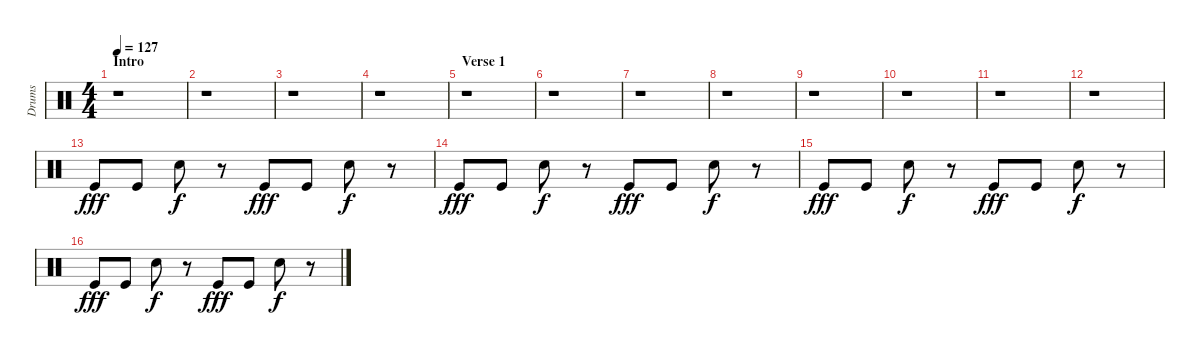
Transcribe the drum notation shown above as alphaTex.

\track ("Drums" "Drums") {instrument percussion}
\staff {score}
\articulation defaults
\ts (4 4)
\section ("" "Intro")
\tempo 127
\clef neutral
\ks c
r.1{dy fff} |
r.1 |
r.1 |
r.1 |
\section ("" "Verse 1")
r.1 |
r.1 |
r.1 |
r.1 |
r.1 |
r.1 |
r.1 |
r.1 |
"Kick (hit)".8 "Kick (hit)".8 "Electric Snare (hit)".8{dy f} r.8 "Kick (hit)".8{dy fff} "Kick (hit)".8 "Electric Snare (hit)".8{dy f} r.8 |
"Kick (hit)".8{dy fff} "Kick (hit)".8 "Electric Snare (hit)".8{dy f} r.8 "Kick (hit)".8{dy fff} "Kick (hit)".8 "Electric Snare (hit)".8{dy f} r.8 |
"Kick (hit)".8{dy fff} "Kick (hit)".8 "Electric Snare (hit)".8{dy f} r.8 "Kick (hit)".8{dy fff} "Kick (hit)".8 "Electric Snare (hit)".8{dy f} r.8 |
"Kick (hit)".8{dy fff} "Kick (hit)".8 "Electric Snare (hit)".8{dy f} r.8 "Kick (hit)".8{dy fff} "Kick (hit)".8 "Electric Snare (hit)".8{dy f} r.8
